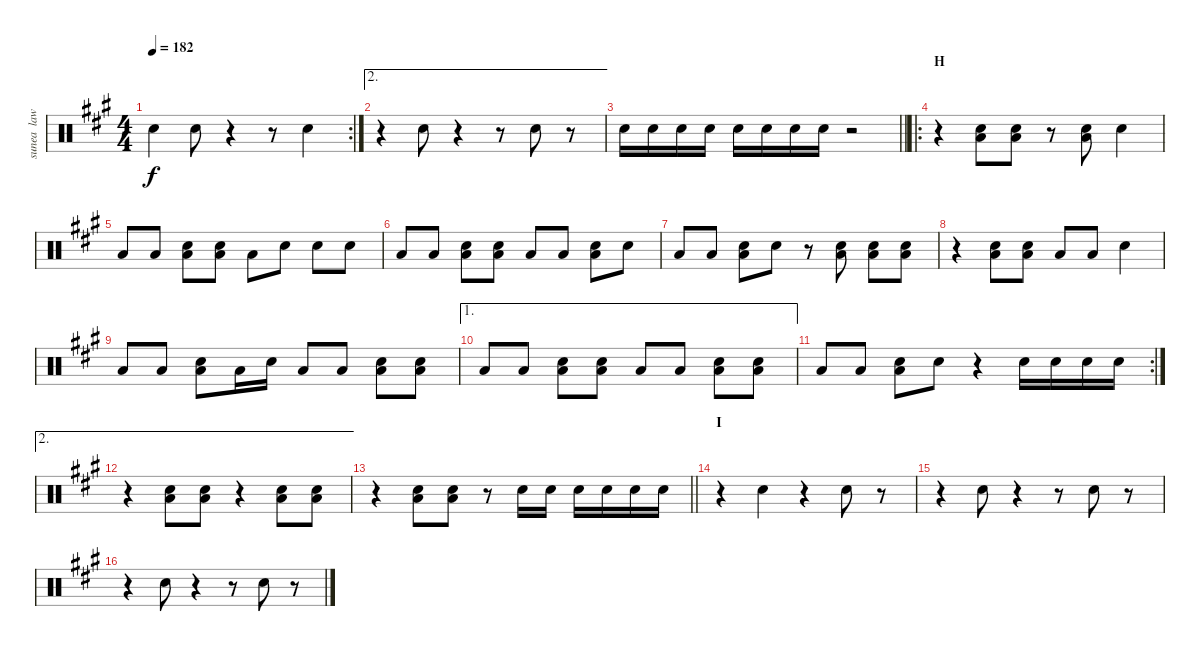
\track ("sunea  law tam" "sunea  law") {instrument percussion}
\staff {score}
\articulation defaults
\rc 2
\ts (4 4)
\tempo 182
\clef neutral
\ks f#minor "Snare (hit) 2".4{dy f} "Snare (hit) 2".8
r.4 r.8 "Snare (hit) 2".4 |
\ae 2
r.4 "Snare (hit) 2".8 r.4 r.8 "Snare (hit) 2".8 r.8 |
\barLineRight lightlight "Snare (hit) 2".16 "Snare (hit) 2".16 "Snare (hit) 2".16 "Snare (hit) 2".16 "Snare (hit) 2".16 "Snare (hit) 2".16 "Snare (hit) 2".16 "Snare (hit) 2".16
r.2 |
\ro
\section ("" "H")
r.4 ("Snare (hit) 2" "Low Tom (hit)").8 ("Snare (hit) 2" "Low Tom (hit)").8 r.8 ("Snare (hit) 2" "Low Tom (hit)").8 "Snare (hit) 2".4 |
"Low Tom (hit)".8 "Low Tom (hit)".8 ("Snare (hit) 2" "Low Tom (hit)").8 ("Snare (hit) 2" "Low Tom (hit)").8 "Low Tom (hit)".8 "Snare (hit) 2".8 "Snare (hit) 2".8 "Snare (hit) 2".8 |
"Low Tom (hit)".8 "Low Tom (hit)".8 ("Snare (hit) 2" "Low Tom (hit)").8 ("Snare (hit) 2" "Low Tom (hit)").8 "Low Tom (hit)".8 "Low Tom (hit)".8 ("Snare (hit) 2" "Low Tom (hit)").8 "Snare (hit) 2".8 |
"Low Tom (hit)".8 "Low Tom (hit)".8 ("Snare (hit) 2" "Low Tom (hit)").8 "Snare (hit) 2".8 r.8 ("Snare (hit) 2" "Low Tom (hit)").8 ("Snare (hit) 2" "Low Tom (hit)").8 ("Snare (hit) 2" "Low Tom (hit)").8 |
r.4 ("Snare (hit) 2" "Low Tom (hit)").8 ("Snare (hit) 2" "Low Tom (hit)").8 "Low Tom (hit)".8 "Low Tom (hit)".8 "Snare (hit) 2".4 |
"Low Tom (hit)".8 "Low Tom (hit)".8 ("Snare (hit) 2" "Low Tom (hit)").8 "Low Tom (hit)".16 "Snare (hit) 2".16 "Low Tom (hit)".8 "Low Tom (hit)".8 ("Snare (hit) 2" "Low Tom (hit)").8 ("Snare (hit) 2" "Low Tom (hit)").8 |
\ae 1 "Low Tom (hit)".8 "Low Tom (hit)".8
("Snare (hit) 2" "Low Tom (hit)").8 ("Snare (hit) 2" "Low Tom (hit)").8 "Low Tom (hit)".8 "Low Tom (hit)".8 ("Snare (hit) 2" "Low Tom (hit)").8 ("Snare (hit) 2" "Low Tom (hit)").8 |
\rc 2 "Low Tom (hit)".8 "Low Tom (hit)".8
("Snare (hit) 2" "Low Tom (hit)").8 "Snare (hit) 2".8 r.4 "Snare (hit) 2".16 "Snare (hit) 2".16 "Snare (hit) 2".16 "Snare (hit) 2".16 |
\ae 2
r.4 ("Snare (hit) 2" "Low Tom (hit)").8 ("Snare (hit) 2" "Low Tom (hit)").8 r.4 ("Snare (hit) 2" "Low Tom (hit)").8 ("Snare (hit) 2" "Low Tom (hit)").8 |
\barLineRight lightlight
r.4 ("Snare (hit) 2" "Low Tom (hit)").8 ("Snare (hit) 2" "Low Tom (hit)").8 r.8 "Snare (hit) 2".16 "Snare (hit) 2".16 "Snare (hit) 2".16 "Snare (hit) 2".16 "Snare (hit) 2".16 "Snare (hit) 2".16 |
\section ("" "I")
r.4 "Snare (hit) 2".4 r.4 "Snare (hit) 2".8 r.8 |
r.4 "Snare (hit) 2".8 r.4 r.8 "Snare (hit) 2".8 r.8 |
r.4 "Snare (hit) 2".8 r.4 r.8 "Snare (hit) 2".8 r.8
